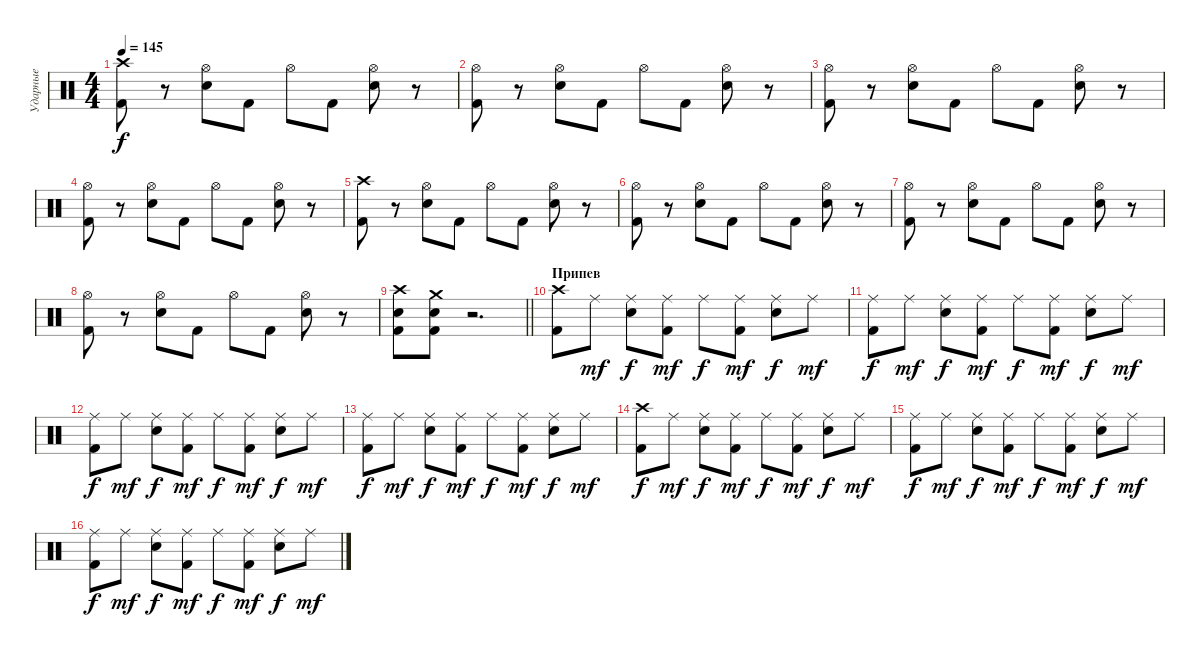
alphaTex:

\track ("Ударные" "Ударные") {instrument percussion}
\staff {score}
\articulation defaults
\ts (4 4)
\tempo 145
\clef neutral
\ks c
("Crash high (hit)" "Kick (hit) 2").8{dy f} r.8 ("Hi-Hat (open)" "Snare (hit) 2").8 "Kick (hit) 2".8 "Hi-Hat (open)".8 "Kick (hit) 2".8 ("Hi-Hat (open)" "Snare (hit) 2").8 r.8 |
("Hi-Hat (open)" "Kick (hit) 2").8 r.8 ("Hi-Hat (open)" "Snare (hit) 2").8 "Kick (hit) 2".8 "Hi-Hat (open)".8 "Kick (hit) 2".8 ("Hi-Hat (open)" "Snare (hit) 2").8 r.8 |
("Hi-Hat (open)" "Kick (hit) 2").8 r.8 ("Hi-Hat (open)" "Snare (hit) 2").8 "Kick (hit) 2".8 "Hi-Hat (open)".8 "Kick (hit) 2".8 ("Hi-Hat (open)" "Snare (hit) 2").8 r.8 |
("Hi-Hat (open)" "Kick (hit) 2").8 r.8 ("Hi-Hat (open)" "Snare (hit) 2").8 "Kick (hit) 2".8 "Hi-Hat (open)".8 "Kick (hit) 2".8 ("Hi-Hat (open)" "Snare (hit) 2").8 r.8 |
("Crash high (hit)" "Kick (hit) 2").8 r.8 ("Hi-Hat (open)" "Snare (hit) 2").8 "Kick (hit) 2".8 "Hi-Hat (open)".8 "Kick (hit) 2".8 ("Hi-Hat (open)" "Snare (hit) 2").8 r.8 |
("Hi-Hat (open)" "Kick (hit) 2").8 r.8 ("Hi-Hat (open)" "Snare (hit) 2").8 "Kick (hit) 2".8 "Hi-Hat (open)".8 "Kick (hit) 2".8 ("Hi-Hat (open)" "Snare (hit) 2").8 r.8 |
("Hi-Hat (open)" "Kick (hit) 2").8 r.8 ("Hi-Hat (open)" "Snare (hit) 2").8 "Kick (hit) 2".8 "Hi-Hat (open)".8 "Kick (hit) 2".8 ("Hi-Hat (open)" "Snare (hit) 2").8 r.8 |
("Hi-Hat (open)" "Kick (hit) 2").8 r.8 ("Hi-Hat (open)" "Snare (hit) 2").8 "Kick (hit) 2".8 "Hi-Hat (open)".8 "Kick (hit) 2".8 ("Hi-Hat (open)" "Snare (hit) 2").8 r.8 |
\barLineRight lightlight
("Snare (hit) 2" "Kick (hit) 2" "Crash high (hit)").8 ("Snare (hit) 2" "Kick (hit) 2" "Crash medium (hit)").8 r.2{d} |
\section ("" "Припев")
("Crash high (hit)" "Kick (hit) 2").8 "Ride (middle)".8{dy mf} ("Ride (middle)" "Snare (hit) 2").8{dy f} ("Ride (middle)" "Kick (hit) 2").8{dy mf} "Ride (middle)".8{dy f} ("Ride (middle)" "Kick (hit) 2").8{dy mf} ("Ride (middle)" "Snare (hit) 2").8{dy f} "Ride (middle)".8{dy mf} |
("Ride (middle)" "Kick (hit) 2").8{dy f} "Ride (middle)".8{dy mf} ("Ride (middle)" "Snare (hit) 2").8{dy f} ("Ride (middle)" "Kick (hit) 2").8{dy mf} "Ride (middle)".8{dy f} ("Ride (middle)" "Kick (hit) 2").8{dy mf} ("Ride (middle)" "Snare (hit) 2").8{dy f} "Ride (middle)".8{dy mf} |
("Ride (middle)" "Kick (hit) 2").8{dy f} "Ride (middle)".8{dy mf} ("Ride (middle)" "Snare (hit) 2").8{dy f} ("Ride (middle)" "Kick (hit) 2").8{dy mf} "Ride (middle)".8{dy f} ("Ride (middle)" "Kick (hit) 2").8{dy mf} ("Ride (middle)" "Snare (hit) 2").8{dy f} "Ride (middle)".8{dy mf} |
("Ride (middle)" "Kick (hit) 2").8{dy f} "Ride (middle)".8{dy mf} ("Ride (middle)" "Snare (hit) 2").8{dy f} ("Ride (middle)" "Kick (hit) 2").8{dy mf} "Ride (middle)".8{dy f} ("Ride (middle)" "Kick (hit) 2").8{dy mf} ("Ride (middle)" "Snare (hit) 2").8{dy f} "Ride (middle)".8{dy mf} |
("Crash high (hit)" "Kick (hit) 2").8{dy f} "Ride (middle)".8{dy mf} ("Ride (middle)" "Snare (hit) 2").8{dy f} ("Ride (middle)" "Kick (hit) 2").8{dy mf} "Ride (middle)".8{dy f} ("Ride (middle)" "Kick (hit) 2").8{dy mf} ("Ride (middle)" "Snare (hit) 2").8{dy f} "Ride (middle)".8{dy mf} |
("Ride (middle)" "Kick (hit) 2").8{dy f} "Ride (middle)".8{dy mf} ("Ride (middle)" "Snare (hit) 2").8{dy f} ("Ride (middle)" "Kick (hit) 2").8{dy mf} "Ride (middle)".8{dy f} ("Ride (middle)" "Kick (hit) 2").8{dy mf} ("Ride (middle)" "Snare (hit) 2").8{dy f} "Ride (middle)".8{dy mf} |
("Ride (middle)" "Kick (hit) 2").8{dy f} "Ride (middle)".8{dy mf} ("Ride (middle)" "Snare (hit) 2").8{dy f} ("Ride (middle)" "Kick (hit) 2").8{dy mf} "Ride (middle)".8{dy f} ("Ride (middle)" "Kick (hit) 2").8{dy mf} ("Ride (middle)" "Snare (hit) 2").8{dy f} "Ride (middle)".8{dy mf}
